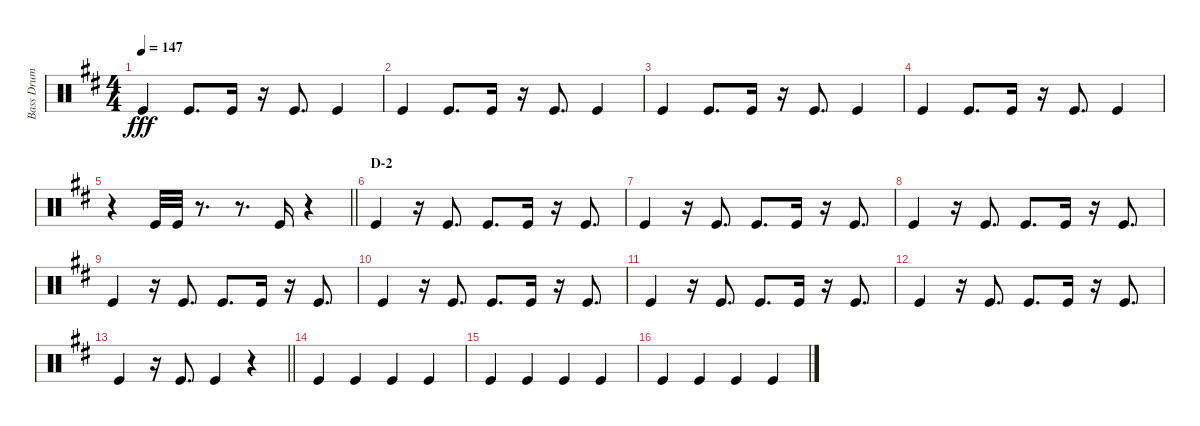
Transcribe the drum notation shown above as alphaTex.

\track ("Bass Drum" "Bass Drum") {instrument percussion}
\staff {score}
\articulation defaults
\ts (4 4)
\tempo 147
\clef neutral
\ks d "Kick (hit)".4{dy fff} "Kick (hit)".8{d} "Kick (hit)".16
r.16 "Kick (hit)".8{d} "Kick (hit)".4 |
"Kick (hit)".4 "Kick (hit)".8{d} "Kick (hit)".16 r.16 "Kick (hit)".8{d} "Kick (hit)".4 |
"Kick (hit)".4 "Kick (hit)".8{d} "Kick (hit)".16 r.16 "Kick (hit)".8{d} "Kick (hit)".4 |
"Kick (hit)".4 "Kick (hit)".8{d} "Kick (hit)".16 r.16 "Kick (hit)".8{d} "Kick (hit)".4 |
\barLineRight lightlight
r.4 "Kick (hit)".32 "Kick (hit)".32 r.8{d} r.8{d} "Kick (hit)".16 r.4 |
\section ("" "D-2")
"Kick (hit)".4 r.16 "Kick (hit)".8{d} "Kick (hit)".8{d} "Kick (hit)".16 r.16 "Kick (hit)".8{d} |
"Kick (hit)".4 r.16 "Kick (hit)".8{d} "Kick (hit)".8{d} "Kick (hit)".16 r.16 "Kick (hit)".8{d} |
"Kick (hit)".4 r.16 "Kick (hit)".8{d} "Kick (hit)".8{d} "Kick (hit)".16 r.16 "Kick (hit)".8{d} |
"Kick (hit)".4 r.16 "Kick (hit)".8{d} "Kick (hit)".8{d} "Kick (hit)".16 r.16 "Kick (hit)".8{d} |
"Kick (hit)".4 r.16 "Kick (hit)".8{d} "Kick (hit)".8{d} "Kick (hit)".16 r.16 "Kick (hit)".8{d} |
"Kick (hit)".4 r.16 "Kick (hit)".8{d} "Kick (hit)".8{d} "Kick (hit)".16 r.16 "Kick (hit)".8{d} |
"Kick (hit)".4 r.16 "Kick (hit)".8{d} "Kick (hit)".8{d} "Kick (hit)".16 r.16 "Kick (hit)".8{d} |
\barLineRight lightlight "Kick (hit)".4
r.16 "Kick (hit)".8{d} "Kick (hit)".4 r.4 |
"Kick (hit)".4 "Kick (hit)".4 "Kick (hit)".4 "Kick (hit)".4 |
"Kick (hit)".4 "Kick (hit)".4 "Kick (hit)".4 "Kick (hit)".4 |
"Kick (hit)".4 "Kick (hit)".4 "Kick (hit)".4 "Kick (hit)".4
